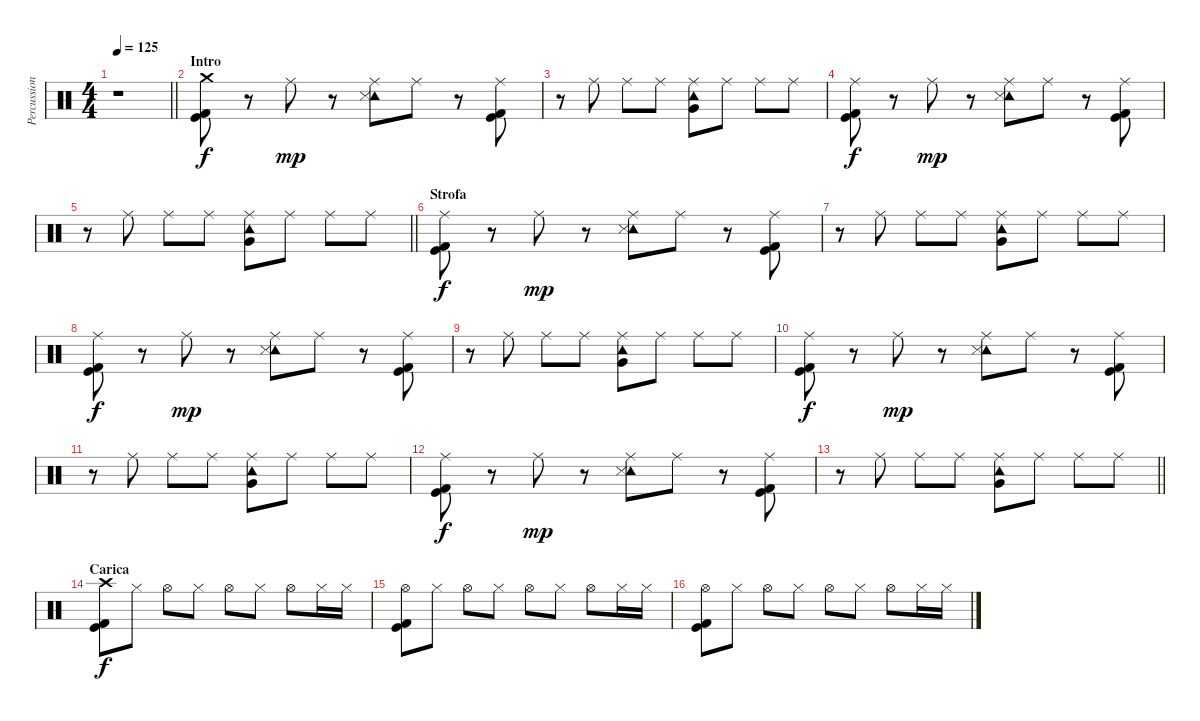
\track ("Percussioni" "Percussion") {instrument percussion}
\staff {score}
\articulation defaults
\ts (4 4)
\tempo 125
\clef neutral
\barLineRight lightlight
\ks c
r.1{dy mp} |
\section ("" "Intro")
("Crash medium (hit)" "Kick (hit)" "Kick (hit) 2").8{dy f} r.8 "Ride (middle)".8{dy mp} r.8 ("Ride (middle)" "Tambourine (hit)" "Snare (side stick) 3").8 "Ride (middle)".8 r.8 ("Ride (middle)" "Kick (hit)" "Kick (hit) 2").8 |
r.8 "Ride (middle)".8 "Ride (middle)".8 "Ride (middle)".8 ("Ride (middle)" "Tambourine (hit)" "Very Low Tom (hit)").8 "Ride (middle)".8 "Ride (middle)".8 "Ride (middle)".8 |
("Ride (middle)" "Kick (hit)" "Kick (hit) 2").8{dy f} r.8 "Ride (middle)".8{dy mp} r.8 ("Ride (middle)" "Tambourine (hit)" "Snare (side stick) 3").8 "Ride (middle)".8 r.8 ("Ride (middle)" "Kick (hit)" "Kick (hit) 2").8 |
\barLineRight lightlight
r.8 "Ride (middle)".8 "Ride (middle)".8 "Ride (middle)".8 ("Ride (middle)" "Tambourine (hit)" "Very Low Tom (hit)").8 "Ride (middle)".8 "Ride (middle)".8 "Ride (middle)".8 |
\section ("" "Strofa")
("Ride (middle)" "Kick (hit)" "Kick (hit) 2").8{dy f} r.8 "Ride (middle)".8{dy mp} r.8 ("Ride (middle)" "Tambourine (hit)" "Snare (side stick) 3").8 "Ride (middle)".8 r.8 ("Ride (middle)" "Kick (hit)" "Kick (hit) 2").8 |
r.8 "Ride (middle)".8 "Ride (middle)".8 "Ride (middle)".8 ("Ride (middle)" "Tambourine (hit)" "Very Low Tom (hit)").8 "Ride (middle)".8 "Ride (middle)".8 "Ride (middle)".8 |
("Ride (middle)" "Kick (hit)" "Kick (hit) 2").8{dy f} r.8 "Ride (middle)".8{dy mp} r.8 ("Ride (middle)" "Tambourine (hit)" "Snare (side stick) 3").8 "Ride (middle)".8 r.8 ("Ride (middle)" "Kick (hit)" "Kick (hit) 2").8 |
r.8 "Ride (middle)".8 "Ride (middle)".8 "Ride (middle)".8 ("Ride (middle)" "Tambourine (hit)" "Very Low Tom (hit)").8 "Ride (middle)".8 "Ride (middle)".8 "Ride (middle)".8 |
("Ride (middle)" "Kick (hit)" "Kick (hit) 2").8{dy f} r.8 "Ride (middle)".8{dy mp} r.8 ("Ride (middle)" "Tambourine (hit)" "Snare (side stick) 3").8 "Ride (middle)".8 r.8 ("Ride (middle)" "Kick (hit)" "Kick (hit) 2").8 |
r.8 "Ride (middle)".8 "Ride (middle)".8 "Ride (middle)".8 ("Ride (middle)" "Tambourine (hit)" "Very Low Tom (hit)").8 "Ride (middle)".8 "Ride (middle)".8 "Ride (middle)".8 |
("Ride (middle)" "Kick (hit)" "Kick (hit) 2").8{dy f} r.8 "Ride (middle)".8{dy mp} r.8 ("Ride (middle)" "Tambourine (hit)" "Snare (side stick) 3").8 "Ride (middle)".8 r.8 ("Ride (middle)" "Kick (hit)" "Kick (hit) 2").8 |
\barLineRight lightlight
r.8 "Ride (middle)".8 "Ride (middle)".8 "Ride (middle)".8 ("Ride (middle)" "Tambourine (hit)" "Very Low Tom (hit)").8 "Ride (middle)".8 "Ride (middle)".8 "Ride (middle)".8 |
\section ("" "Carica")
("Crash high (hit)" "Kick (hit)" "Kick (hit) 2").8{dy f} "Hi-Hat (closed)".8 "Hi-Hat (open)".8 "Hi-Hat (closed)".8 "Hi-Hat (open)".8 "Hi-Hat (closed)".8 "Hi-Hat (open)".8 "Hi-Hat (closed)".16 "Hi-Hat (closed)".16 |
("Hi-Hat (open)" "Kick (hit)" "Kick (hit) 2").8 "Hi-Hat (closed)".8 "Hi-Hat (open)".8 "Hi-Hat (closed)".8 "Hi-Hat (open)".8 "Hi-Hat (closed)".8 "Hi-Hat (open)".8 "Hi-Hat (closed)".16 "Hi-Hat (closed)".16 |
("Hi-Hat (open)" "Kick (hit)" "Kick (hit) 2").8 "Hi-Hat (closed)".8 "Hi-Hat (open)".8 "Hi-Hat (closed)".8 "Hi-Hat (open)".8 "Hi-Hat (closed)".8 "Hi-Hat (open)".8 "Hi-Hat (closed)".16 "Hi-Hat (closed)".16
